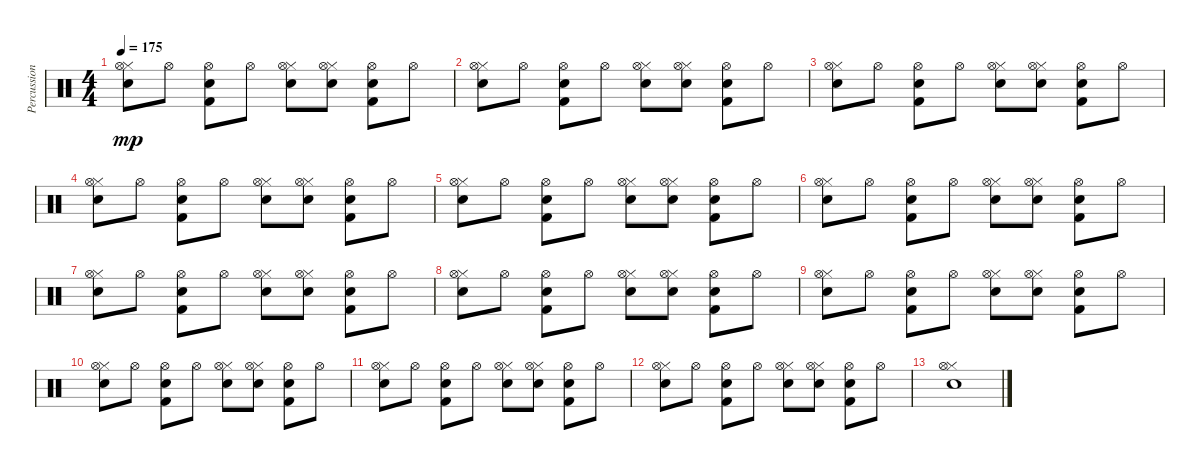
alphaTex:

\track ("Percussions" "Percussion") {instrument percussion}
\staff {score}
\articulation defaults
\ts (4 4)
\tempo 175
\clef neutral
\ks c
("Snare (hit) 2" "Hi-Hat (closed)" "Hi-Hat (open)").8{dy mp} "Hi-Hat (open)".8 ("Kick (hit) 2" "Snare (hit) 2" "Hi-Hat (open)").8 "Hi-Hat (open)".8 ("Snare (hit) 2" "Hi-Hat (closed)" "Hi-Hat (open)").8 ("Snare (hit) 2" "Hi-Hat (closed)" "Hi-Hat (open)").8 ("Kick (hit) 2" "Snare (hit) 2" "Hi-Hat (open)").8 "Hi-Hat (open)".8 |
("Snare (hit) 2" "Hi-Hat (closed)" "Hi-Hat (open)").8 "Hi-Hat (open)".8 ("Kick (hit) 2" "Snare (hit) 2" "Hi-Hat (open)").8 "Hi-Hat (open)".8 ("Snare (hit) 2" "Hi-Hat (closed)" "Hi-Hat (open)").8 ("Snare (hit) 2" "Hi-Hat (closed)" "Hi-Hat (open)").8 ("Kick (hit) 2" "Snare (hit) 2" "Hi-Hat (open)").8 "Hi-Hat (open)".8 |
("Snare (hit) 2" "Hi-Hat (closed)" "Hi-Hat (open)").8 "Hi-Hat (open)".8 ("Kick (hit) 2" "Snare (hit) 2" "Hi-Hat (open)").8 "Hi-Hat (open)".8 ("Snare (hit) 2" "Hi-Hat (closed)" "Hi-Hat (open)").8 ("Snare (hit) 2" "Hi-Hat (closed)" "Hi-Hat (open)").8 ("Kick (hit) 2" "Snare (hit) 2" "Hi-Hat (open)").8 "Hi-Hat (open)".8 |
("Snare (hit) 2" "Hi-Hat (closed)" "Hi-Hat (open)").8 "Hi-Hat (open)".8 ("Kick (hit) 2" "Snare (hit) 2" "Hi-Hat (open)").8 "Hi-Hat (open)".8 ("Snare (hit) 2" "Hi-Hat (closed)" "Hi-Hat (open)").8 ("Snare (hit) 2" "Hi-Hat (closed)" "Hi-Hat (open)").8 ("Kick (hit) 2" "Snare (hit) 2" "Hi-Hat (open)").8 "Hi-Hat (open)".8 |
("Snare (hit) 2" "Hi-Hat (closed)" "Hi-Hat (open)").8 "Hi-Hat (open)".8 ("Kick (hit) 2" "Snare (hit) 2" "Hi-Hat (open)").8 "Hi-Hat (open)".8 ("Snare (hit) 2" "Hi-Hat (closed)" "Hi-Hat (open)").8 ("Snare (hit) 2" "Hi-Hat (closed)" "Hi-Hat (open)").8 ("Kick (hit) 2" "Snare (hit) 2" "Hi-Hat (open)").8 "Hi-Hat (open)".8 |
("Snare (hit) 2" "Hi-Hat (closed)" "Hi-Hat (open)").8 "Hi-Hat (open)".8 ("Kick (hit) 2" "Snare (hit) 2" "Hi-Hat (open)").8 "Hi-Hat (open)".8 ("Snare (hit) 2" "Hi-Hat (closed)" "Hi-Hat (open)").8 ("Snare (hit) 2" "Hi-Hat (closed)" "Hi-Hat (open)").8 ("Kick (hit) 2" "Snare (hit) 2" "Hi-Hat (open)").8 "Hi-Hat (open)".8 |
("Snare (hit) 2" "Hi-Hat (closed)" "Hi-Hat (open)").8 "Hi-Hat (open)".8 ("Kick (hit) 2" "Snare (hit) 2" "Hi-Hat (open)").8 "Hi-Hat (open)".8 ("Snare (hit) 2" "Hi-Hat (closed)" "Hi-Hat (open)").8 ("Snare (hit) 2" "Hi-Hat (closed)" "Hi-Hat (open)").8 ("Kick (hit) 2" "Snare (hit) 2" "Hi-Hat (open)").8 "Hi-Hat (open)".8 |
("Snare (hit) 2" "Hi-Hat (closed)" "Hi-Hat (open)").8 "Hi-Hat (open)".8 ("Kick (hit) 2" "Snare (hit) 2" "Hi-Hat (open)").8 "Hi-Hat (open)".8 ("Snare (hit) 2" "Hi-Hat (closed)" "Hi-Hat (open)").8 ("Snare (hit) 2" "Hi-Hat (closed)" "Hi-Hat (open)").8 ("Kick (hit) 2" "Snare (hit) 2" "Hi-Hat (open)").8 "Hi-Hat (open)".8 |
("Snare (hit) 2" "Hi-Hat (closed)" "Hi-Hat (open)").8 "Hi-Hat (open)".8 ("Kick (hit) 2" "Snare (hit) 2" "Hi-Hat (open)").8 "Hi-Hat (open)".8 ("Snare (hit) 2" "Hi-Hat (closed)" "Hi-Hat (open)").8 ("Snare (hit) 2" "Hi-Hat (closed)" "Hi-Hat (open)").8 ("Kick (hit) 2" "Snare (hit) 2" "Hi-Hat (open)").8 "Hi-Hat (open)".8 |
("Snare (hit) 2" "Hi-Hat (closed)" "Hi-Hat (open)").8 "Hi-Hat (open)".8 ("Kick (hit) 2" "Snare (hit) 2" "Hi-Hat (open)").8 "Hi-Hat (open)".8 ("Snare (hit) 2" "Hi-Hat (closed)" "Hi-Hat (open)").8 ("Snare (hit) 2" "Hi-Hat (closed)" "Hi-Hat (open)").8 ("Kick (hit) 2" "Snare (hit) 2" "Hi-Hat (open)").8 "Hi-Hat (open)".8 |
("Snare (hit) 2" "Hi-Hat (closed)" "Hi-Hat (open)").8 "Hi-Hat (open)".8 ("Kick (hit) 2" "Snare (hit) 2" "Hi-Hat (open)").8 "Hi-Hat (open)".8 ("Snare (hit) 2" "Hi-Hat (closed)" "Hi-Hat (open)").8 ("Snare (hit) 2" "Hi-Hat (closed)" "Hi-Hat (open)").8 ("Kick (hit) 2" "Snare (hit) 2" "Hi-Hat (open)").8 "Hi-Hat (open)".8 |
("Snare (hit) 2" "Hi-Hat (closed)" "Hi-Hat (open)").8 "Hi-Hat (open)".8 ("Kick (hit) 2" "Snare (hit) 2" "Hi-Hat (open)").8 "Hi-Hat (open)".8 ("Snare (hit) 2" "Hi-Hat (closed)" "Hi-Hat (open)").8 ("Snare (hit) 2" "Hi-Hat (closed)" "Hi-Hat (open)").8 ("Kick (hit) 2" "Snare (hit) 2" "Hi-Hat (open)").8 "Hi-Hat (open)".8 |
("Snare (hit) 2" "Hi-Hat (closed)" "Hi-Hat (open)").1
